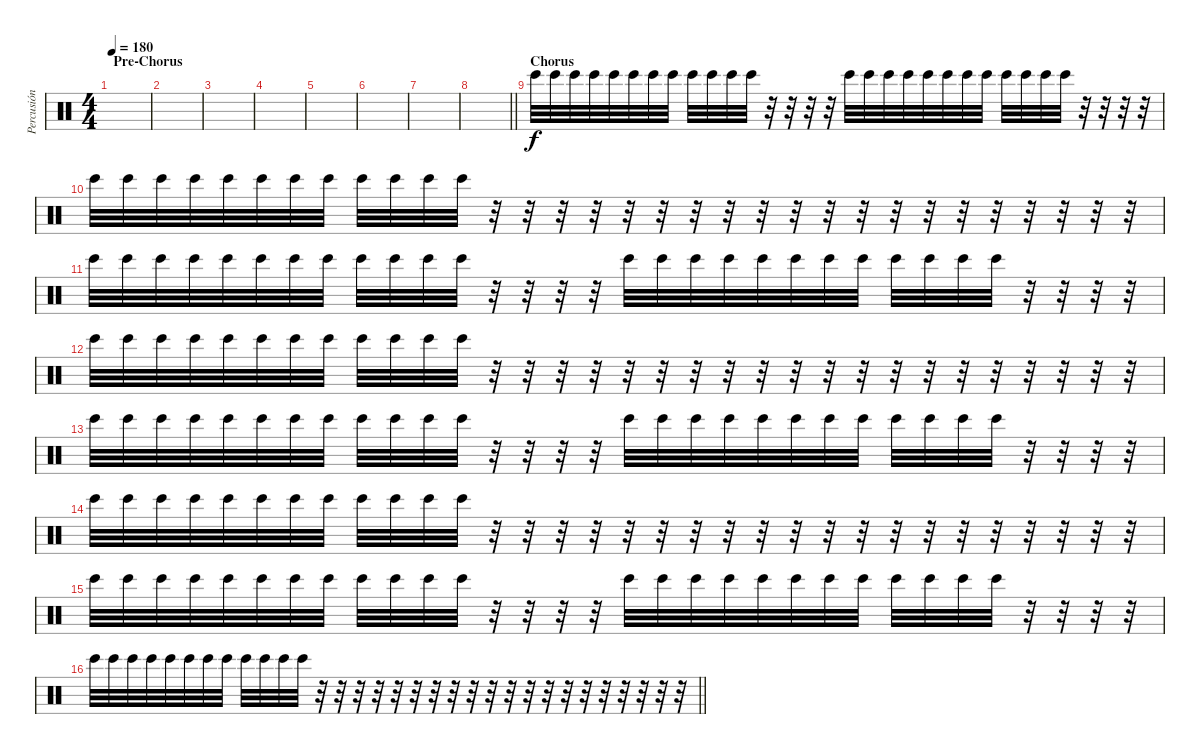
\track ("Percusión" "Percusión") {instrument percussion}
\staff {score}
\articulation defaults
\ts (4 4)
\section ("" "Pre-Chorus")
\tempo 180
\clef neutral
\ks c
|
|
|
|
|
|
|
\barLineRight lightlight
|
\section ("" "Chorus")
"Bongo High (hit)".32 "Bongo High (hit)".32 "Bongo High (hit)".32 "Bongo High (hit)".32 "Bongo High (hit)".32 "Bongo High (hit)".32 "Bongo High (hit)".32 "Bongo High (hit)".32 "Bongo High (hit)".32 "Bongo High (hit)".32 "Bongo High (hit)".32 "Bongo High (hit)".32 r.32 r.32 r.32 r.32 "Bongo High (hit)".32 "Bongo High (hit)".32 "Bongo High (hit)".32 "Bongo High (hit)".32 "Bongo High (hit)".32 "Bongo High (hit)".32 "Bongo High (hit)".32 "Bongo High (hit)".32 "Bongo High (hit)".32 "Bongo High (hit)".32 "Bongo High (hit)".32 "Bongo High (hit)".32 r.32 r.32 r.32 r.32 |
"Bongo High (hit)".32 "Bongo High (hit)".32 "Bongo High (hit)".32 "Bongo High (hit)".32 "Bongo High (hit)".32 "Bongo High (hit)".32 "Bongo High (hit)".32 "Bongo High (hit)".32 "Bongo High (hit)".32 "Bongo High (hit)".32 "Bongo High (hit)".32 "Bongo High (hit)".32 r.32 r.32 r.32 r.32 r.32 r.32 r.32 r.32 r.32 r.32 r.32 r.32 r.32 r.32 r.32 r.32 r.32 r.32 r.32 r.32 |
"Bongo High (hit)".32 "Bongo High (hit)".32 "Bongo High (hit)".32 "Bongo High (hit)".32 "Bongo High (hit)".32 "Bongo High (hit)".32 "Bongo High (hit)".32 "Bongo High (hit)".32 "Bongo High (hit)".32 "Bongo High (hit)".32 "Bongo High (hit)".32 "Bongo High (hit)".32 r.32 r.32 r.32 r.32 "Bongo High (hit)".32 "Bongo High (hit)".32 "Bongo High (hit)".32 "Bongo High (hit)".32 "Bongo High (hit)".32 "Bongo High (hit)".32 "Bongo High (hit)".32 "Bongo High (hit)".32 "Bongo High (hit)".32 "Bongo High (hit)".32 "Bongo High (hit)".32 "Bongo High (hit)".32 r.32 r.32 r.32 r.32 |
"Bongo High (hit)".32 "Bongo High (hit)".32 "Bongo High (hit)".32 "Bongo High (hit)".32 "Bongo High (hit)".32 "Bongo High (hit)".32 "Bongo High (hit)".32 "Bongo High (hit)".32 "Bongo High (hit)".32 "Bongo High (hit)".32 "Bongo High (hit)".32 "Bongo High (hit)".32 r.32 r.32 r.32 r.32 r.32 r.32 r.32 r.32 r.32 r.32 r.32 r.32 r.32 r.32 r.32 r.32 r.32 r.32 r.32 r.32 |
"Bongo High (hit)".32 "Bongo High (hit)".32 "Bongo High (hit)".32 "Bongo High (hit)".32 "Bongo High (hit)".32 "Bongo High (hit)".32 "Bongo High (hit)".32 "Bongo High (hit)".32 "Bongo High (hit)".32 "Bongo High (hit)".32 "Bongo High (hit)".32 "Bongo High (hit)".32 r.32 r.32 r.32 r.32 "Bongo High (hit)".32 "Bongo High (hit)".32 "Bongo High (hit)".32 "Bongo High (hit)".32 "Bongo High (hit)".32 "Bongo High (hit)".32 "Bongo High (hit)".32 "Bongo High (hit)".32 "Bongo High (hit)".32 "Bongo High (hit)".32 "Bongo High (hit)".32 "Bongo High (hit)".32 r.32 r.32 r.32 r.32 |
"Bongo High (hit)".32 "Bongo High (hit)".32 "Bongo High (hit)".32 "Bongo High (hit)".32 "Bongo High (hit)".32 "Bongo High (hit)".32 "Bongo High (hit)".32 "Bongo High (hit)".32 "Bongo High (hit)".32 "Bongo High (hit)".32 "Bongo High (hit)".32 "Bongo High (hit)".32 r.32 r.32 r.32 r.32 r.32 r.32 r.32 r.32 r.32 r.32 r.32 r.32 r.32 r.32 r.32 r.32 r.32 r.32 r.32 r.32 |
"Bongo High (hit)".32 "Bongo High (hit)".32 "Bongo High (hit)".32 "Bongo High (hit)".32 "Bongo High (hit)".32 "Bongo High (hit)".32 "Bongo High (hit)".32 "Bongo High (hit)".32 "Bongo High (hit)".32 "Bongo High (hit)".32 "Bongo High (hit)".32 "Bongo High (hit)".32 r.32 r.32 r.32 r.32 "Bongo High (hit)".32 "Bongo High (hit)".32 "Bongo High (hit)".32 "Bongo High (hit)".32 "Bongo High (hit)".32 "Bongo High (hit)".32 "Bongo High (hit)".32 "Bongo High (hit)".32 "Bongo High (hit)".32 "Bongo High (hit)".32 "Bongo High (hit)".32 "Bongo High (hit)".32 r.32 r.32 r.32 r.32 |
\barLineRight lightlight "Bongo High (hit)".32 "Bongo High (hit)".32 "Bongo High (hit)".32 "Bongo High (hit)".32 "Bongo High (hit)".32 "Bongo High (hit)".32 "Bongo High (hit)".32 "Bongo High (hit)".32 "Bongo High (hit)".32 "Bongo High (hit)".32 "Bongo High (hit)".32 "Bongo High (hit)".32
r.32 r.32 r.32 r.32 r.32 r.32 r.32 r.32 r.32 r.32 r.32 r.32 r.32 r.32 r.32 r.32 r.32 r.32 r.32 r.32
